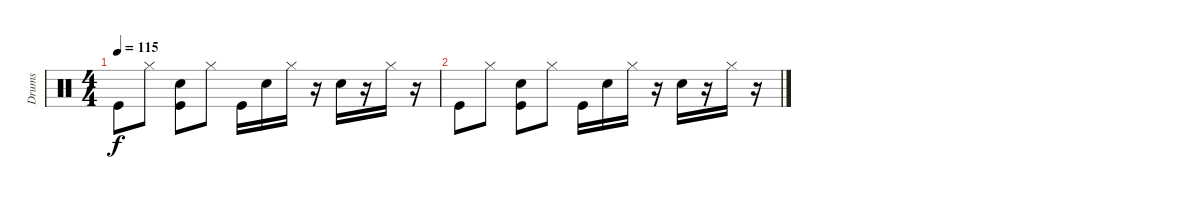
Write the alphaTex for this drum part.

\track ("Drums" "Drums") {instrument percussion}
\staff {score}
\articulation defaults
\ts (4 4)
\tempo 115
\clef neutral
\ks c "Kick (hit)".8{dy f} "Hi-Hat (closed)".8
("Electric Snare (hit)" "Kick (hit)").8 "Hi-Hat (closed)".8 "Kick (hit)".16 "Electric Snare (hit)".16 "Hi-Hat (closed)".16 r.16 "Electric Snare (hit)".16 r.16 "Hi-Hat (closed)".16 r.16 |
"Kick (hit)".8 "Hi-Hat (closed)".8 ("Electric Snare (hit)" "Kick (hit)").8 "Hi-Hat (closed)".8 "Kick (hit)".16 "Electric Snare (hit)".16 "Hi-Hat (closed)".16 r.16 "Electric Snare (hit)".16 r.16 "Hi-Hat (closed)".16 r.16
